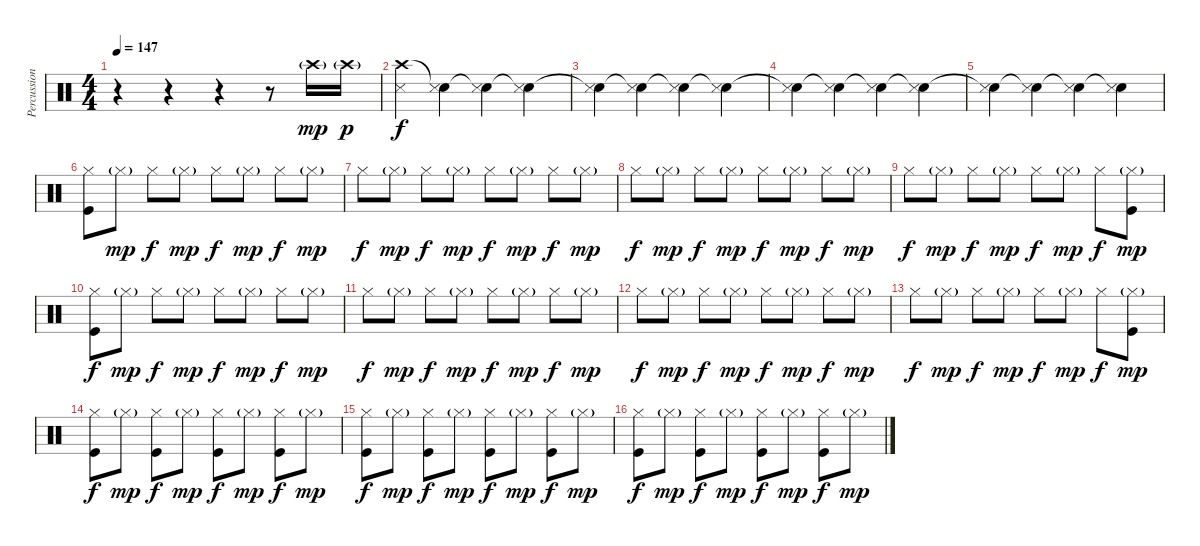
\track ("Percussion" "Percussion") {instrument percussion}
\staff {score}
\articulation defaults
\ts (4 4)
\tempo 147
\clef neutral
\ks c
r.4{dy mp} r.4 r.4 r.8 "Crash high (hit)"{g}.16 "Crash high (hit)"{g}.16{dy p} |
("Crash high (hit)" "Snare (side stick) 3").4{dy f} ("Snare (hit)"{t} "Snare (side stick) 3").4 ("Snare (hit)"{t} "Snare (side stick) 3").4 ("Snare (hit)"{t} "Snare (side stick) 3").4 |
("Snare (hit)"{t} "Snare (side stick) 3").4 ("Snare (hit)"{t} "Snare (side stick) 3").4 ("Snare (hit)"{t} "Snare (side stick) 3").4 ("Snare (hit)"{t} "Snare (side stick) 3").4 |
("Snare (hit)"{t} "Snare (side stick) 3").4 ("Snare (hit)"{t} "Snare (side stick) 3").4 ("Snare (hit)"{t} "Snare (side stick) 3").4 ("Snare (hit)"{t} "Snare (side stick) 3").4 |
("Snare (hit)"{t} "Snare (side stick) 3").4 ("Snare (hit)"{t} "Snare (side stick) 3").4 ("Snare (hit)"{t} "Snare (side stick) 3").4 ("Snare (hit)"{t} "Snare (side stick) 3").4 |
("Hi-Hat (closed)" "Kick (hit)").8 "Hi-Hat (closed)"{g}.8{dy mp} "Hi-Hat (closed)".8{dy f} "Hi-Hat (closed)"{g}.8{dy mp} "Hi-Hat (closed)".8{dy f} "Hi-Hat (closed)"{g}.8{dy mp} "Hi-Hat (closed)".8{dy f} "Hi-Hat (closed)"{g}.8{dy mp} |
"Hi-Hat (closed)".8{dy f} "Hi-Hat (closed)"{g}.8{dy mp} "Hi-Hat (closed)".8{dy f} "Hi-Hat (closed)"{g}.8{dy mp} "Hi-Hat (closed)".8{dy f} "Hi-Hat (closed)"{g}.8{dy mp} "Hi-Hat (closed)".8{dy f} "Hi-Hat (closed)"{g}.8{dy mp} |
"Hi-Hat (closed)".8{dy f} "Hi-Hat (closed)"{g}.8{dy mp} "Hi-Hat (closed)".8{dy f} "Hi-Hat (closed)"{g}.8{dy mp} "Hi-Hat (closed)".8{dy f} "Hi-Hat (closed)"{g}.8{dy mp} "Hi-Hat (closed)".8{dy f} "Hi-Hat (closed)"{g}.8{dy mp} |
"Hi-Hat (closed)".8{dy f} "Hi-Hat (closed)"{g}.8{dy mp} "Hi-Hat (closed)".8{dy f} "Hi-Hat (closed)"{g}.8{dy mp} "Hi-Hat (closed)".8{dy f} "Hi-Hat (closed)"{g}.8{dy mp} "Hi-Hat (closed)".8{dy f} ("Hi-Hat (closed)"{g} "Kick (hit)").8{dy mp} |
("Hi-Hat (closed)" "Kick (hit)").8{dy f} "Hi-Hat (closed)"{g}.8{dy mp} "Hi-Hat (closed)".8{dy f} "Hi-Hat (closed)"{g}.8{dy mp} "Hi-Hat (closed)".8{dy f} "Hi-Hat (closed)"{g}.8{dy mp} "Hi-Hat (closed)".8{dy f} "Hi-Hat (closed)"{g}.8{dy mp} |
"Hi-Hat (closed)".8{dy f} "Hi-Hat (closed)"{g}.8{dy mp} "Hi-Hat (closed)".8{dy f} "Hi-Hat (closed)"{g}.8{dy mp} "Hi-Hat (closed)".8{dy f} "Hi-Hat (closed)"{g}.8{dy mp} "Hi-Hat (closed)".8{dy f} "Hi-Hat (closed)"{g}.8{dy mp} |
"Hi-Hat (closed)".8{dy f} "Hi-Hat (closed)"{g}.8{dy mp} "Hi-Hat (closed)".8{dy f} "Hi-Hat (closed)"{g}.8{dy mp} "Hi-Hat (closed)".8{dy f} "Hi-Hat (closed)"{g}.8{dy mp} "Hi-Hat (closed)".8{dy f} "Hi-Hat (closed)"{g}.8{dy mp} |
"Hi-Hat (closed)".8{dy f} "Hi-Hat (closed)"{g}.8{dy mp} "Hi-Hat (closed)".8{dy f} "Hi-Hat (closed)"{g}.8{dy mp} "Hi-Hat (closed)".8{dy f} "Hi-Hat (closed)"{g}.8{dy mp} "Hi-Hat (closed)".8{dy f} ("Hi-Hat (closed)"{g} "Kick (hit)").8{dy mp} |
("Hi-Hat (closed)" "Kick (hit)").8{dy f} "Hi-Hat (closed)"{g}.8{dy mp} ("Hi-Hat (closed)" "Kick (hit)").8{dy f} "Hi-Hat (closed)"{g}.8{dy mp} ("Hi-Hat (closed)" "Kick (hit)").8{dy f} "Hi-Hat (closed)"{g}.8{dy mp} ("Hi-Hat (closed)" "Kick (hit)").8{dy f} "Hi-Hat (closed)"{g}.8{dy mp} |
("Hi-Hat (closed)" "Kick (hit)").8{dy f} "Hi-Hat (closed)"{g}.8{dy mp} ("Hi-Hat (closed)" "Kick (hit)").8{dy f} "Hi-Hat (closed)"{g}.8{dy mp} ("Hi-Hat (closed)" "Kick (hit)").8{dy f} "Hi-Hat (closed)"{g}.8{dy mp} ("Hi-Hat (closed)" "Kick (hit)").8{dy f} "Hi-Hat (closed)"{g}.8{dy mp} |
("Hi-Hat (closed)" "Kick (hit)").8{dy f} "Hi-Hat (closed)"{g}.8{dy mp} ("Hi-Hat (closed)" "Kick (hit)").8{dy f} "Hi-Hat (closed)"{g}.8{dy mp} ("Hi-Hat (closed)" "Kick (hit)").8{dy f} "Hi-Hat (closed)"{g}.8{dy mp} ("Hi-Hat (closed)" "Kick (hit)").8{dy f} "Hi-Hat (closed)"{g}.8{dy mp}
